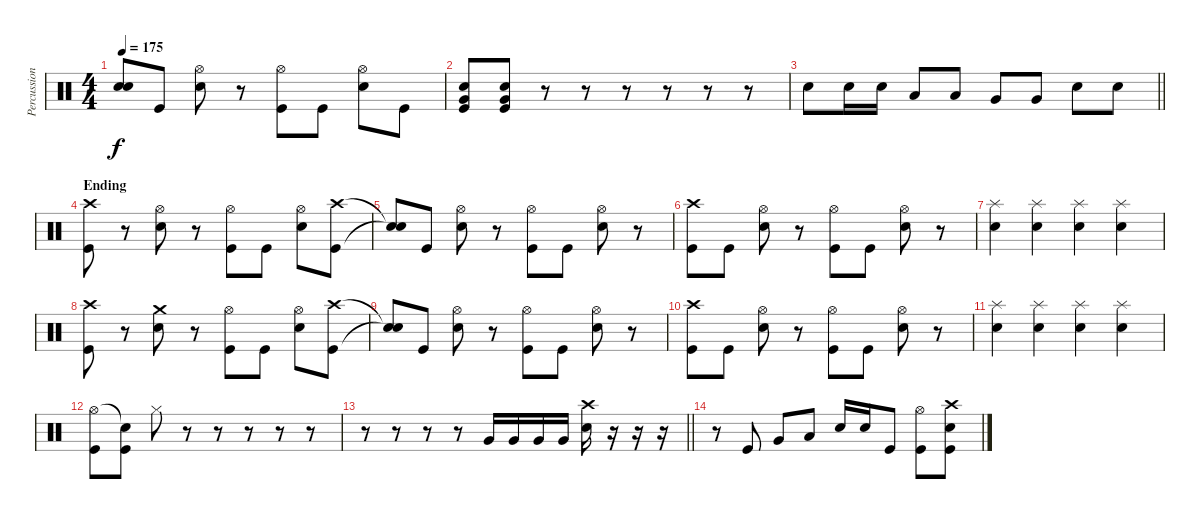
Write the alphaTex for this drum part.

\track ("Percussion" "Percussion") {instrument percussion}
\staff {score}
\articulation defaults
\ts (4 4)
\tempo 175
\clef neutral
\ks c
("Snare (hit)"{t} "Snare (hit)"{t}).8{dy f} "Kick (hit)".8 ("Hi-Hat (open)" "Snare (hit) 2").8 r.8 ("Hi-Hat (open)" "Kick (hit)").8 "Kick (hit)".8 ("Hi-Hat (open)" "Snare (hit) 2").8 "Kick (hit)".8 |
("Snare (hit) 2" "Very Low Tom (hit)" "Kick (hit)").8 ("Snare (hit) 2" "Very Low Tom (hit)" "Kick (hit)").8 r.8 r.8 r.8 r.8 r.8 r.8 |
\barLineRight lightlight "Snare (hit) 2".8 "Snare (hit) 2".16 "Snare (hit) 2".16 "Low Tom (hit)".8 "Low Tom (hit)".8 "Very Low Tom (hit)".8 "Very Low Tom (hit)".8 "Snare (hit) 2".8 "Snare (hit) 2".8
|
\section ("" "Ending")
("Crash high (hit)" "Kick (hit)").8 r.8 ("Hi-Hat (open)" "Snare (hit) 2").8 r.8 ("Hi-Hat (open)" "Kick (hit)").8 "Kick (hit)".8 ("Hi-Hat (open)" "Snare (hit) 2").8 ("Crash high (hit)" "Kick (hit)").8 |
("Snare (hit)"{t} "Snare (hit)"{t}).8 "Kick (hit)".8 ("Hi-Hat (open)" "Snare (hit) 2").8 r.8 ("Hi-Hat (open)" "Kick (hit)").8 "Kick (hit)".8 ("Hi-Hat (open)" "Snare (hit) 2").8 r.8 |
("Crash high (hit)" "Kick (hit)").8 "Kick (hit)".8 ("Hi-Hat (open)" "Snare (hit) 2").8 r.8 ("Hi-Hat (open)" "Kick (hit)").8 "Kick (hit)".8 ("Hi-Hat (open)" "Snare (hit) 2").8 r.8 |
("Splash (hit)" "Snare (hit) 2").4 ("Splash (hit)" "Snare (hit) 2").4 ("Splash (hit)" "Snare (hit) 2").4 ("Splash (hit)" "Snare (hit) 2").4 |
("Crash high (hit)" "Kick (hit)").8 r.8 ("Crash medium (hit)" "Snare (hit) 2").8 r.8 ("Hi-Hat (open)" "Kick (hit)").8 "Kick (hit)".8 ("Hi-Hat (open)" "Snare (hit) 2").8 ("Crash high (hit)" "Kick (hit)").8 |
("Snare (hit)"{t} "Snare (hit)"{t}).8 "Kick (hit)".8 ("Hi-Hat (open)" "Snare (hit) 2").8 r.8 ("Hi-Hat (open)" "Kick (hit)").8 "Kick (hit)".8 ("Hi-Hat (open)" "Snare (hit) 2").8 r.8 |
("Crash high (hit)" "Kick (hit)").8 "Kick (hit)".8 ("Hi-Hat (open)" "Snare (hit) 2").8 r.8 ("Hi-Hat (open)" "Kick (hit)").8 "Kick (hit)".8 ("Hi-Hat (open)" "Snare (hit) 2").8 r.8 |
("Splash (hit)" "Snare (hit) 2").4 ("Splash (hit)" "Snare (hit) 2").4 ("Splash (hit)" "Snare (hit) 2").4 ("Splash (hit)" "Snare (hit) 2").4 |
("Hi-Hat (open)" "Kick (hit)").8 ("Snare (hit)"{t} "Kick (hit)").8 "Hi-Hat (closed)".8 r.8 r.8 r.8 r.8 r.8 |
\barLineRight lightlight
r.8 r.8 r.8 r.8 "Very Low Tom (hit)".16 "Very Low Tom (hit)".16 "Very Low Tom (hit)".16 "Very Low Tom (hit)".16 ("Crash high (hit)" "Snare (hit) 2").16 r.16 r.16 r.16 |
r.8 "Kick (hit)".8 "Very Low Tom (hit)".8 "Low Tom (hit)".8 "Snare (hit) 2".16 "Snare (hit) 2".16 "Kick (hit)".8 ("Hi-Hat (open)" "Kick (hit)").8 ("Crash high (hit)" "Snare (hit) 2" "Kick (hit)").8
